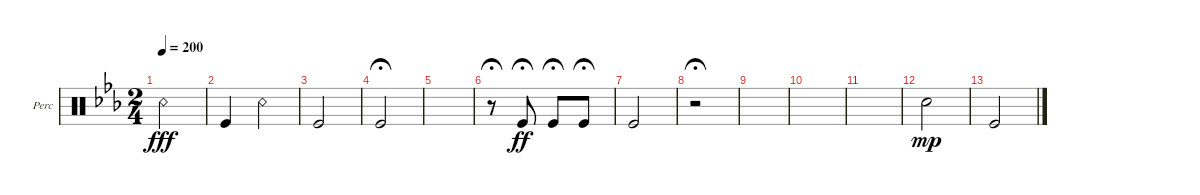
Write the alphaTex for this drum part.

\defaultSystemsLayout 4
\bracketExtendMode groupsimilarinstruments
\firstSystemTrackNameOrientation horizontal
\otherSystemsTrackNameOrientation horizontal
\track ("Body Percussion" "Perc") {instrument percussion}
\staff {score}
\articulation defaults
\ts (2 4)
\scale
0.336146
\tempo 200
\accidentals auto
\clef neutral
\ottava regular
\simile none
\ks cminor "Snare (rim shot)".2{dy fff}
|
\scale
0.104079 "Kick (hit)".4 "Snare (rim shot)".4 |
\scale
0.134161 "Kick (hit)".2 |
\scale
0.425909 "Kick (hit)".2{fermata (medium 0.88)} |
|
r.8{fermata (medium 0.5)} "Kick (hit)".8{dy ff fermata (medium 0.5)} "Kick (hit)".8{fermata (medium 0.5)} "Kick (hit)".8{fermata (medium 0.5)} |
"Kick (hit)".2 |
r.2{fermata (medium 0.5)} |
\scale
0.333333 |
\scale
0.188235 |
\scale
0.19542 |
\scale
0.283152 "Snare (hit) 2".2{dy mp} |
\scale
0.320499 "Kick (hit)".2 |
\scale
0.216588 |
\scale
0.182163 |
\scale
0.280835
